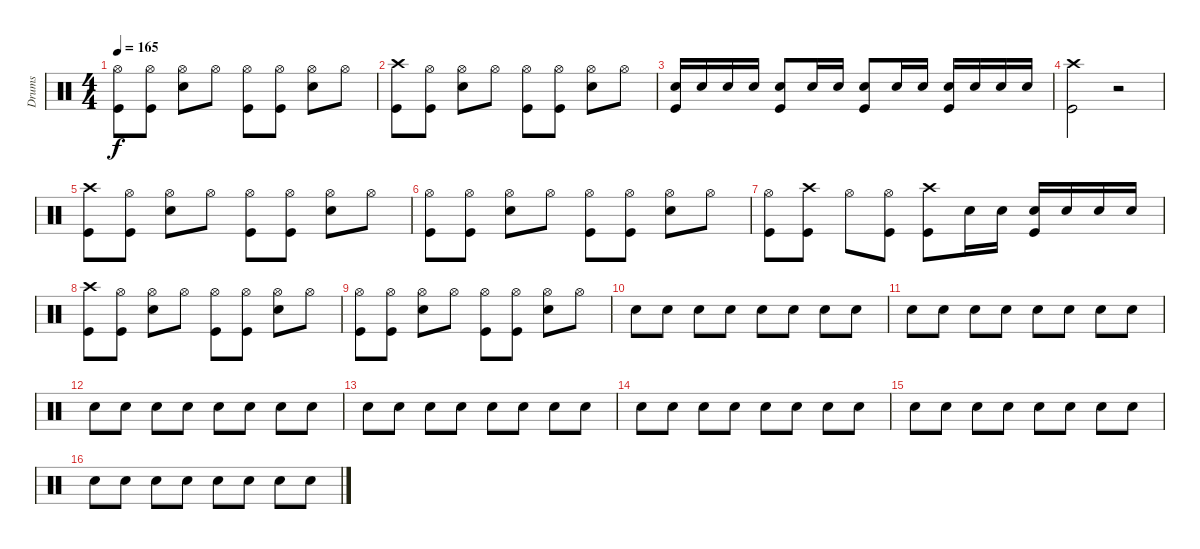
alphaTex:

\track ("Drums" "Drums") {instrument percussion}
\staff {score}
\articulation defaults
\ts (4 4)
\tempo 165
\clef neutral
\ks c
("Hi-Hat (open)" "Kick (hit)").8{dy f} ("Hi-Hat (open)" "Kick (hit)").8 ("Hi-Hat (open)" "Snare (hit) 2").8 "Hi-Hat (open)".8 ("Hi-Hat (open)" "Kick (hit)").8 ("Hi-Hat (open)" "Kick (hit)").8 ("Hi-Hat (open)" "Snare (hit) 2").8 "Hi-Hat (open)".8 |
("Crash high (hit)" "Kick (hit)").8 ("Hi-Hat (open)" "Kick (hit)").8 ("Hi-Hat (open)" "Snare (hit) 2").8 "Hi-Hat (open)".8 ("Hi-Hat (open)" "Kick (hit)").8 ("Hi-Hat (open)" "Kick (hit)").8 ("Hi-Hat (open)" "Snare (hit) 2").8 "Hi-Hat (open)".8 |
("Snare (hit) 2" "Kick (hit)").16 "Snare (hit) 2".16 "Snare (hit) 2".16 "Snare (hit) 2".16 ("Snare (hit) 2" "Kick (hit)").8 "Snare (hit) 2".16 "Snare (hit) 2".16 ("Snare (hit) 2" "Kick (hit)").8 "Snare (hit) 2".16 "Snare (hit) 2".16 ("Snare (hit) 2" "Kick (hit)").16 "Snare (hit) 2".16 "Snare (hit) 2".16 "Snare (hit) 2".16 |
("Crash high (hit)" "Kick (hit)").2 r.2 |
("Crash high (hit)" "Kick (hit)").8 ("Hi-Hat (open)" "Kick (hit)").8 ("Hi-Hat (open)" "Snare (hit) 2").8 "Hi-Hat (open)".8 ("Hi-Hat (open)" "Kick (hit)").8 ("Hi-Hat (open)" "Kick (hit)").8 ("Hi-Hat (open)" "Snare (hit) 2").8 "Hi-Hat (open)".8 |
("Hi-Hat (open)" "Kick (hit)").8 ("Hi-Hat (open)" "Kick (hit)").8 ("Hi-Hat (open)" "Snare (hit) 2").8 "Hi-Hat (open)".8 ("Hi-Hat (open)" "Kick (hit)").8 ("Hi-Hat (open)" "Kick (hit)").8 ("Hi-Hat (open)" "Snare (hit) 2").8 "Hi-Hat (open)".8 |
("Hi-Hat (open)" "Kick (hit)").8 ("Crash high (hit)" "Kick (hit)").8 "Hi-Hat (open)".8 ("Hi-Hat (open)" "Kick (hit)").8 ("Crash high (hit)" "Kick (hit)").8 "Snare (hit) 2".16 "Snare (hit) 2".16 ("Snare (hit) 2" "Kick (hit)").16 "Snare (hit) 2".16 "Snare (hit) 2".16 "Snare (hit) 2".16 |
("Crash high (hit)" "Kick (hit)").8 ("Hi-Hat (open)" "Kick (hit)").8 ("Hi-Hat (open)" "Snare (hit) 2").8 "Hi-Hat (open)".8 ("Hi-Hat (open)" "Kick (hit)").8 ("Hi-Hat (open)" "Kick (hit)").8 ("Hi-Hat (open)" "Snare (hit) 2").8 "Hi-Hat (open)".8 |
("Hi-Hat (open)" "Kick (hit)").8 ("Hi-Hat (open)" "Kick (hit)").8 ("Hi-Hat (open)" "Snare (hit) 2").8 "Hi-Hat (open)".8 ("Hi-Hat (open)" "Kick (hit)").8 ("Hi-Hat (open)" "Kick (hit)").8 ("Hi-Hat (open)" "Snare (hit) 2").8 "Hi-Hat (open)".8 |
"Snare (hit) 2".8 "Snare (hit) 2".8 "Snare (hit) 2".8 "Snare (hit) 2".8 "Snare (hit) 2".8 "Snare (hit) 2".8 "Snare (hit) 2".8 "Snare (hit) 2".8 |
"Snare (hit) 2".8 "Snare (hit) 2".8 "Snare (hit) 2".8 "Snare (hit) 2".8 "Snare (hit) 2".8 "Snare (hit) 2".8 "Snare (hit) 2".8 "Snare (hit) 2".8 |
"Snare (hit) 2".8 "Snare (hit) 2".8 "Snare (hit) 2".8 "Snare (hit) 2".8 "Snare (hit) 2".8 "Snare (hit) 2".8 "Snare (hit) 2".8 "Snare (hit) 2".8 |
"Snare (hit) 2".8 "Snare (hit) 2".8 "Snare (hit) 2".8 "Snare (hit) 2".8 "Snare (hit) 2".8 "Snare (hit) 2".8 "Snare (hit) 2".8 "Snare (hit) 2".8 |
"Snare (hit) 2".8 "Snare (hit) 2".8 "Snare (hit) 2".8 "Snare (hit) 2".8 "Snare (hit) 2".8 "Snare (hit) 2".8 "Snare (hit) 2".8 "Snare (hit) 2".8 |
"Snare (hit) 2".8 "Snare (hit) 2".8 "Snare (hit) 2".8 "Snare (hit) 2".8 "Snare (hit) 2".8 "Snare (hit) 2".8 "Snare (hit) 2".8 "Snare (hit) 2".8 |
"Snare (hit) 2".8 "Snare (hit) 2".8 "Snare (hit) 2".8 "Snare (hit) 2".8 "Snare (hit) 2".8 "Snare (hit) 2".8 "Snare (hit) 2".8 "Snare (hit) 2".8
